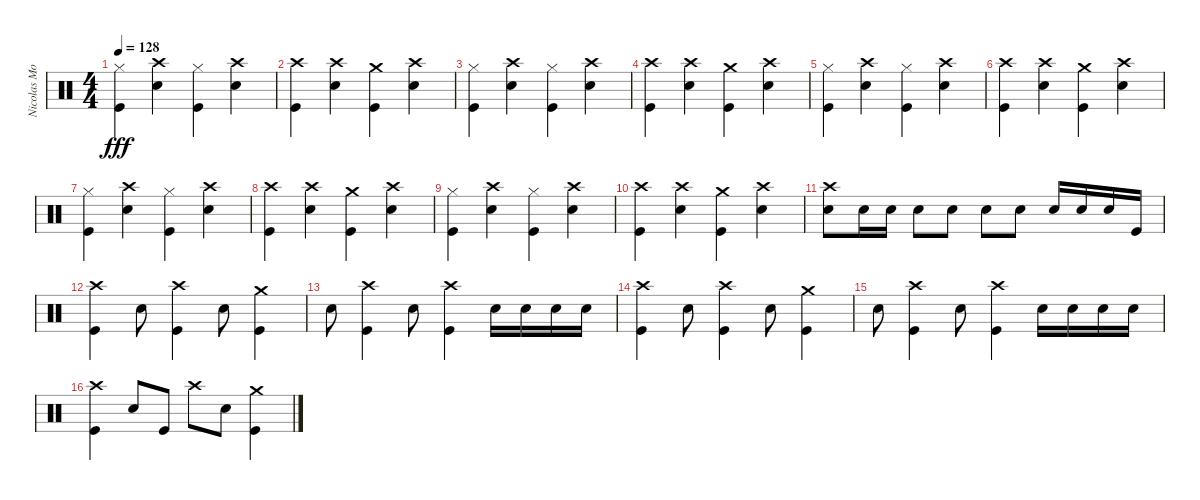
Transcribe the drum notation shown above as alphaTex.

\track ("Nicolas Mosquera" "Nicolas Mo") {mute instrument percussion}
\staff {score}
\articulation defaults
\ts (4 4)
\tempo 128
\clef neutral
\ks c
("Kick (hit)" "Hi-Hat (closed)").4{dy fff} ("Crash high (hit)" "Snare (hit) 2").4 ("Kick (hit)" "Hi-Hat (closed)").4 ("Snare (hit) 2" "Crash high (hit)").4 |
("Kick (hit)" "Crash high (hit)").4 ("Crash high (hit)" "Snare (hit) 2").4 ("Kick (hit)" "Crash medium (hit)").4 ("Crash high (hit)" "Snare (hit) 2").4 |
("Kick (hit)" "Hi-Hat (closed)").4 ("Crash high (hit)" "Snare (hit) 2").4 ("Kick (hit)" "Hi-Hat (closed)").4 ("Snare (hit) 2" "Crash high (hit)").4 |
("Kick (hit)" "Crash high (hit)").4 ("Crash high (hit)" "Snare (hit) 2").4 ("Kick (hit)" "Crash medium (hit)").4 ("Crash high (hit)" "Snare (hit) 2").4 |
("Kick (hit)" "Hi-Hat (closed)").4 ("Crash high (hit)" "Snare (hit) 2").4 ("Kick (hit)" "Hi-Hat (closed)").4 ("Snare (hit) 2" "Crash high (hit)").4 |
("Kick (hit)" "Crash high (hit)").4 ("Crash high (hit)" "Snare (hit) 2").4 ("Kick (hit)" "Crash medium (hit)").4 ("Crash high (hit)" "Snare (hit) 2").4 |
("Kick (hit)" "Hi-Hat (closed)").4 ("Crash high (hit)" "Snare (hit) 2").4 ("Kick (hit)" "Hi-Hat (closed)").4 ("Snare (hit) 2" "Crash high (hit)").4 |
("Kick (hit)" "Crash high (hit)").4 ("Crash high (hit)" "Snare (hit) 2").4 ("Kick (hit)" "Crash medium (hit)").4 ("Crash high (hit)" "Snare (hit) 2").4 |
("Kick (hit)" "Hi-Hat (closed)").4 ("Crash high (hit)" "Snare (hit) 2").4 ("Kick (hit)" "Hi-Hat (closed)").4 ("Snare (hit) 2" "Crash high (hit)").4 |
("Kick (hit)" "Crash high (hit)").4 ("Crash high (hit)" "Snare (hit) 2").4 ("Kick (hit)" "Crash medium (hit)").4 ("Crash high (hit)" "Snare (hit) 2").4 |
("Snare (hit) 2" "Crash high (hit)").8 "Snare (hit) 2".16 "Snare (hit) 2".16 "Snare (hit) 2".8 "Snare (hit) 2".8 "Snare (hit) 2".8 "Snare (hit) 2".8 "Snare (hit) 2".16 "Snare (hit) 2".16 "Snare (hit) 2".16 "Kick (hit)".16 |
("Kick (hit)" "Crash high (hit)").4 "Snare (hit) 2".8 ("Kick (hit)" "Crash high (hit)").4 "Snare (hit) 2".8 ("Crash medium (hit)" "Kick (hit)").4 |
"Snare (hit) 2".8 ("Kick (hit)" "Crash high (hit)").4 "Snare (hit) 2".8 ("Kick (hit)" "Crash high (hit)").4 "Snare (hit) 2".16 "Snare (hit) 2".16 "Snare (hit) 2".16 "Snare (hit) 2".16 |
("Kick (hit)" "Crash high (hit)").4 "Snare (hit) 2".8 ("Kick (hit)" "Crash high (hit)").4 "Snare (hit) 2".8 ("Crash medium (hit)" "Kick (hit)").4 |
"Snare (hit) 2".8 ("Kick (hit)" "Crash high (hit)").4 "Snare (hit) 2".8 ("Kick (hit)" "Crash high (hit)").4 "Snare (hit) 2".16 "Snare (hit) 2".16 "Snare (hit) 2".16 "Snare (hit) 2".16 |
("Kick (hit)" "Crash high (hit)").4 "Snare (hit) 2".8 "Kick (hit)".8 "Crash high (hit)".8 "Snare (hit) 2".8 ("Kick (hit)" "Crash medium (hit)").4
